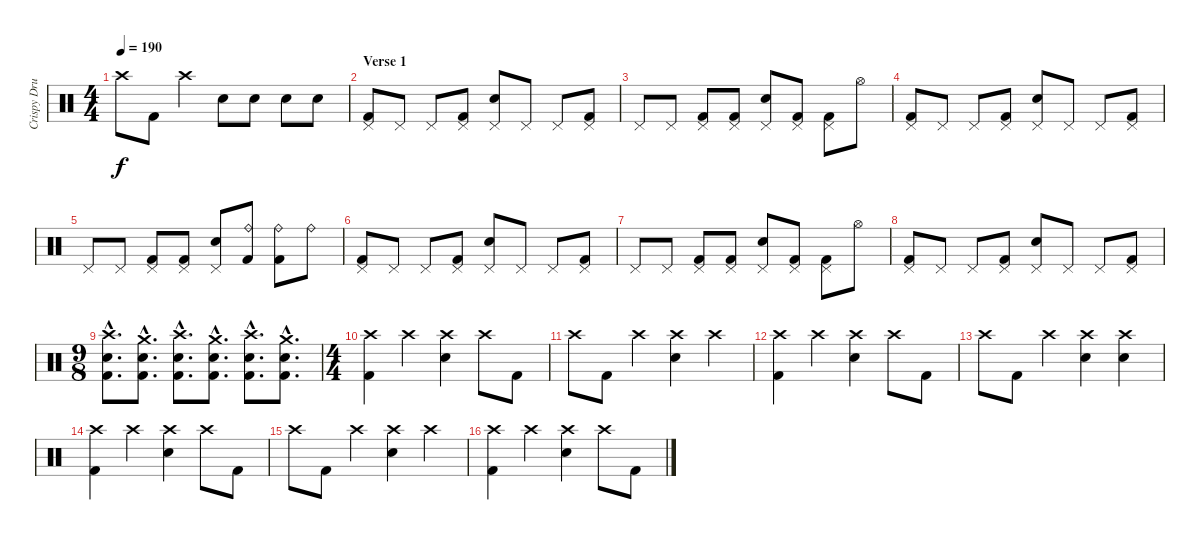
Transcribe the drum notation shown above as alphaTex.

\track ("Crispy Drums" "Crispy Dru") {instrument percussion}
\staff {score}
\articulation defaults
\ts (4 4)
\tempo 190
\clef neutral
\ks c "Crash high (hit)".8{dy f} "Kick (hit) 2".8 "Crash high (hit)".4 "Electric Snare (hit)".8 "Electric Snare (hit)".8 "Electric Snare (hit)".8 "Electric Snare (hit)".8
|
\section ("" "Verse 1")
("Pedal Hi-Hat (hit)" "Kick (hit) 2").8 "Pedal Hi-Hat (hit)".8 "Pedal Hi-Hat (hit)".8 ("Pedal Hi-Hat (hit)" "Kick (hit) 2").8 ("Pedal Hi-Hat (hit)" "Electric Snare (hit)").8 "Pedal Hi-Hat (hit)".8 "Pedal Hi-Hat (hit)".8 ("Pedal Hi-Hat (hit)" "Kick (hit) 2").8 |
"Pedal Hi-Hat (hit)".8 "Pedal Hi-Hat (hit)".8 ("Pedal Hi-Hat (hit)" "Kick (hit) 2").8 ("Pedal Hi-Hat (hit)" "Kick (hit) 2").8 ("Pedal Hi-Hat (hit)" "Electric Snare (hit)").8 ("Pedal Hi-Hat (hit)" "Kick (hit) 2").8 ("Pedal Hi-Hat (hit)" "Kick (hit) 2").8 "Hi-Hat (open)".8 |
("Pedal Hi-Hat (hit)" "Kick (hit) 2").8 "Pedal Hi-Hat (hit)".8 "Pedal Hi-Hat (hit)".8 ("Pedal Hi-Hat (hit)" "Kick (hit) 2").8 ("Pedal Hi-Hat (hit)" "Electric Snare (hit)").8 "Pedal Hi-Hat (hit)".8 "Pedal Hi-Hat (hit)".8 ("Pedal Hi-Hat (hit)" "Kick (hit) 2").8 |
"Pedal Hi-Hat (hit)".8 "Pedal Hi-Hat (hit)".8 ("Pedal Hi-Hat (hit)" "Kick (hit) 2").8 ("Pedal Hi-Hat (hit)" "Kick (hit) 2").8 ("Pedal Hi-Hat (hit)" "Electric Snare (hit)").8 ("Ride (bell)" "Kick (hit) 2").8 ("Ride (bell)" "Kick (hit) 2").8 "Ride (bell)".8 |
("Pedal Hi-Hat (hit)" "Kick (hit) 2").8 "Pedal Hi-Hat (hit)".8 "Pedal Hi-Hat (hit)".8 ("Pedal Hi-Hat (hit)" "Kick (hit) 2").8 ("Pedal Hi-Hat (hit)" "Electric Snare (hit)").8 "Pedal Hi-Hat (hit)".8 "Pedal Hi-Hat (hit)".8 ("Pedal Hi-Hat (hit)" "Kick (hit) 2").8 |
"Pedal Hi-Hat (hit)".8 "Pedal Hi-Hat (hit)".8 ("Pedal Hi-Hat (hit)" "Kick (hit) 2").8 ("Pedal Hi-Hat (hit)" "Kick (hit) 2").8 ("Pedal Hi-Hat (hit)" "Electric Snare (hit)").8 ("Pedal Hi-Hat (hit)" "Kick (hit) 2").8 ("Pedal Hi-Hat (hit)" "Kick (hit) 2").8 "Hi-Hat (open)".8 |
("Pedal Hi-Hat (hit)" "Kick (hit) 2").8 "Pedal Hi-Hat (hit)".8 "Pedal Hi-Hat (hit)".8 ("Pedal Hi-Hat (hit)" "Kick (hit) 2").8 ("Pedal Hi-Hat (hit)" "Electric Snare (hit)").8 "Pedal Hi-Hat (hit)".8 "Pedal Hi-Hat (hit)".8 ("Pedal Hi-Hat (hit)" "Kick (hit) 2").8 |
\ts (9 8)
("Crash high (hit)"{hac} "Electric Snare (hit)"{hac} "Kick (hit) 2"{hac}).8{d} ("Crash medium (hit)"{hac} "Electric Snare (hit)"{hac} "Kick (hit) 2"{hac}).8{d} ("Crash high (hit)"{hac} "Electric Snare (hit)"{hac} "Kick (hit) 2"{hac}).8{d} ("Crash medium (hit)"{hac} "Electric Snare (hit)"{hac} "Kick (hit) 2"{hac}).8{d} ("Crash high (hit)"{hac} "Electric Snare (hit)"{hac} "Kick (hit) 2"{hac}).8{d} ("Crash medium (hit)"{hac} "Electric Snare (hit)"{hac} "Kick (hit) 2"{hac}).8{d} |
\ts (4 4)
("Crash high (hit)" "Kick (hit) 2").4 "Crash high (hit)".4 ("Crash high (hit)" "Electric Snare (hit)").4 "Crash high (hit)".8 "Kick (hit) 2".8 |
"Crash high (hit)".8 "Kick (hit) 2".8 "Crash high (hit)".4 ("Crash high (hit)" "Electric Snare (hit)").4 "Crash high (hit)".4 |
("Crash high (hit)" "Kick (hit) 2").4 "Crash high (hit)".4 ("Crash high (hit)" "Electric Snare (hit)").4 "Crash high (hit)".8 "Kick (hit) 2".8 |
"Crash high (hit)".8 "Kick (hit) 2".8 "Crash high (hit)".4 ("Crash high (hit)" "Electric Snare (hit)").4 ("Crash high (hit)" "Electric Snare (hit)").4 |
("Crash high (hit)" "Kick (hit) 2").4 "Crash high (hit)".4 ("Crash high (hit)" "Electric Snare (hit)").4 "Crash high (hit)".8 "Kick (hit) 2".8 |
"Crash high (hit)".8 "Kick (hit) 2".8 "Crash high (hit)".4 ("Crash high (hit)" "Electric Snare (hit)").4 "Crash high (hit)".4 |
("Crash high (hit)" "Kick (hit) 2").4 "Crash high (hit)".4 ("Crash high (hit)" "Electric Snare (hit)").4 "Crash high (hit)".8 "Kick (hit) 2".8
